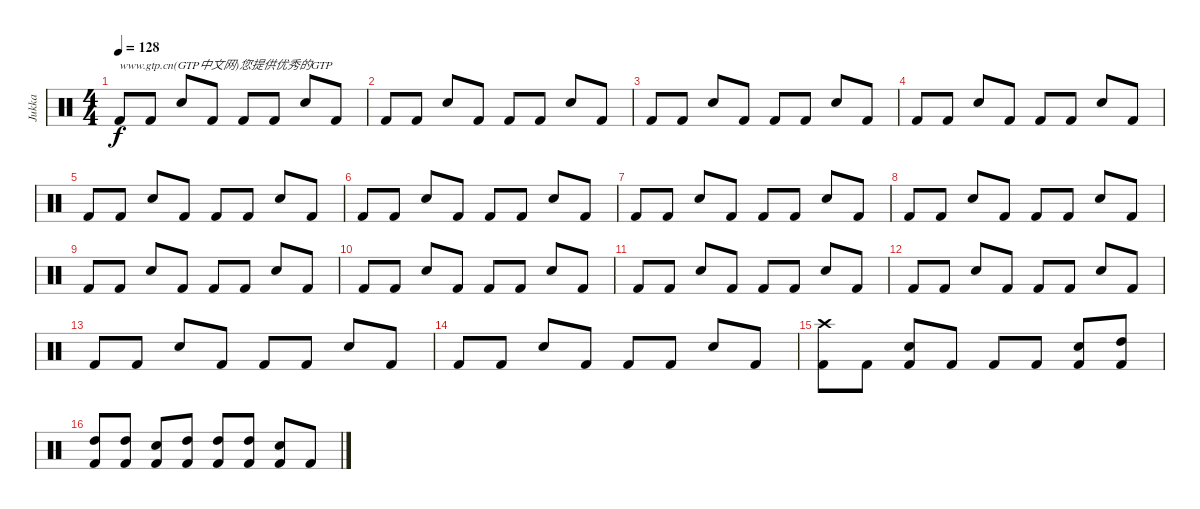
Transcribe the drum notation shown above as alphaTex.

\track ("Jukka" "Jukka") {instrument percussion}
\staff {score}
\articulation defaults
\ts (4 4)
\tempo 128
\clef neutral
\ks c "Kick (hit) 2".8{txt "www.gtp.cn(GTP中文网)您提供优秀的GTP" dy f} "Kick (hit) 2".8 "Electric Snare (hit)".8 "Kick (hit) 2".8 "Kick (hit) 2".8 "Kick (hit) 2".8 "Electric Snare (hit)".8 "Kick (hit) 2".8
|
"Kick (hit) 2".8 "Kick (hit) 2".8 "Electric Snare (hit)".8 "Kick (hit) 2".8 "Kick (hit) 2".8 "Kick (hit) 2".8 "Electric Snare (hit)".8 "Kick (hit) 2".8 |
"Kick (hit) 2".8 "Kick (hit) 2".8 "Electric Snare (hit)".8 "Kick (hit) 2".8 "Kick (hit) 2".8 "Kick (hit) 2".8 "Electric Snare (hit)".8 "Kick (hit) 2".8 |
"Kick (hit) 2".8 "Kick (hit) 2".8 "Electric Snare (hit)".8 "Kick (hit) 2".8 "Kick (hit) 2".8 "Kick (hit) 2".8 "Electric Snare (hit)".8 "Kick (hit) 2".8 |
"Kick (hit) 2".8 "Kick (hit) 2".8 "Electric Snare (hit)".8 "Kick (hit) 2".8 "Kick (hit) 2".8 "Kick (hit) 2".8 "Electric Snare (hit)".8 "Kick (hit) 2".8 |
"Kick (hit) 2".8 "Kick (hit) 2".8 "Electric Snare (hit)".8 "Kick (hit) 2".8 "Kick (hit) 2".8 "Kick (hit) 2".8 "Electric Snare (hit)".8 "Kick (hit) 2".8 |
"Kick (hit) 2".8 "Kick (hit) 2".8 "Electric Snare (hit)".8 "Kick (hit) 2".8 "Kick (hit) 2".8 "Kick (hit) 2".8 "Electric Snare (hit)".8 "Kick (hit) 2".8 |
"Kick (hit) 2".8 "Kick (hit) 2".8 "Electric Snare (hit)".8 "Kick (hit) 2".8 "Kick (hit) 2".8 "Kick (hit) 2".8 "Electric Snare (hit)".8 "Kick (hit) 2".8 |
"Kick (hit) 2".8 "Kick (hit) 2".8 "Electric Snare (hit)".8 "Kick (hit) 2".8 "Kick (hit) 2".8 "Kick (hit) 2".8 "Electric Snare (hit)".8 "Kick (hit) 2".8 |
"Kick (hit) 2".8 "Kick (hit) 2".8 "Electric Snare (hit)".8 "Kick (hit) 2".8 "Kick (hit) 2".8 "Kick (hit) 2".8 "Electric Snare (hit)".8 "Kick (hit) 2".8 |
"Kick (hit) 2".8 "Kick (hit) 2".8 "Electric Snare (hit)".8 "Kick (hit) 2".8 "Kick (hit) 2".8 "Kick (hit) 2".8 "Electric Snare (hit)".8 "Kick (hit) 2".8 |
"Kick (hit) 2".8 "Kick (hit) 2".8 "Electric Snare (hit)".8 "Kick (hit) 2".8 "Kick (hit) 2".8 "Kick (hit) 2".8 "Electric Snare (hit)".8 "Kick (hit) 2".8 |
"Kick (hit) 2".8 "Kick (hit) 2".8 "Electric Snare (hit)".8 "Kick (hit) 2".8 "Kick (hit) 2".8 "Kick (hit) 2".8 "Electric Snare (hit)".8 "Kick (hit) 2".8 |
"Kick (hit) 2".8 "Kick (hit) 2".8 "Electric Snare (hit)".8 "Kick (hit) 2".8 "Kick (hit) 2".8 "Kick (hit) 2".8 "Electric Snare (hit)".8 "Kick (hit) 2".8 |
("Crash high (hit)" "Kick (hit) 2").8 "Kick (hit) 2".8 ("Electric Snare (hit)" "Kick (hit) 2").8 "Kick (hit) 2".8 "Kick (hit) 2".8 "Kick (hit) 2".8 ("Electric Snare (hit)" "Kick (hit) 2").8 ("Kick (hit) 2" "High Tom (hit)").8 |
("Kick (hit) 2" "High Tom (hit)").8 ("Kick (hit) 2" "High Tom (hit)").8 ("Electric Snare (hit)" "Kick (hit) 2").8 ("Kick (hit) 2" "High Tom (hit)").8 ("Kick (hit) 2" "High Tom (hit)").8 ("Kick (hit) 2" "High Tom (hit)").8 ("Electric Snare (hit)" "Kick (hit) 2").8 "Kick (hit) 2".8
